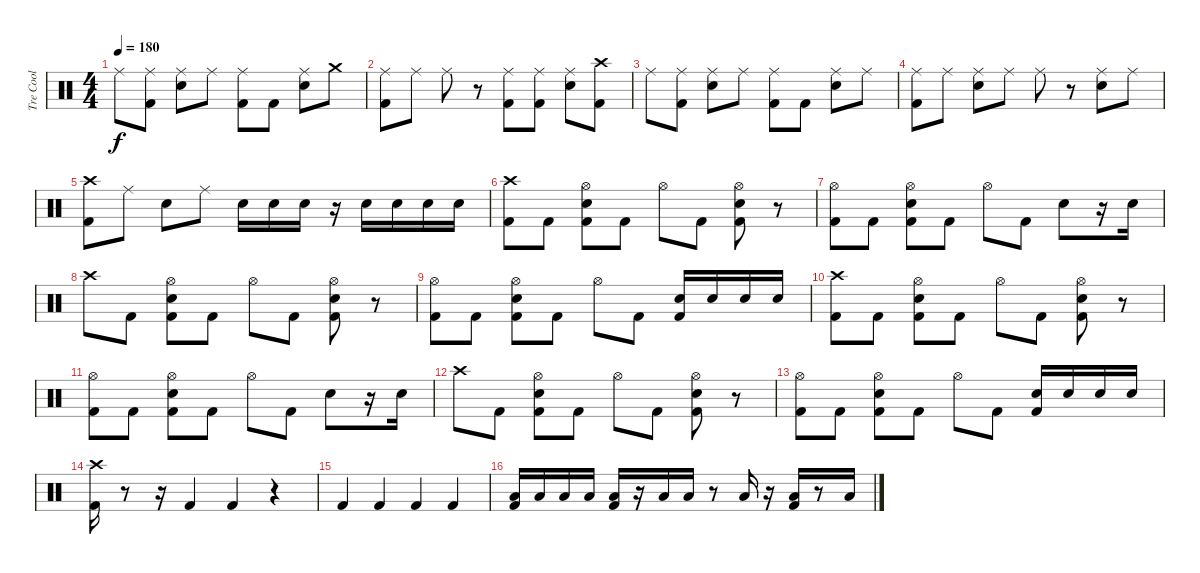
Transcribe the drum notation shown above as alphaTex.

\track ("Tre Cool" "Tre Cool") {instrument percussion}
\staff {score}
\articulation defaults
\ts (4 4)
\tempo 180
\clef neutral
\ks c "Ride (middle)".8{dy f}
("Kick (hit) 2" "Ride (middle)").8 ("Snare (hit) 2" "Ride (middle)").8 "Ride (middle)".8 ("Kick (hit) 2" "Ride (middle)").8 "Kick (hit) 2".8 ("Snare (hit) 2" "Ride (middle)").8 "Crash medium (hit)".8 |
("Kick (hit) 2" "Ride (middle)").8 "Ride (middle)".8 "Ride (middle)".8 r.8 ("Ride (middle)" "Kick (hit) 2").8 ("Ride (middle)" "Kick (hit) 2").8 ("Ride (middle)" "Snare (hit) 2").8 ("Crash high (hit)" "Kick (hit) 2").8 |
"Ride (middle)".8 ("Ride (middle)" "Kick (hit) 2").8 ("Ride (middle)" "Snare (hit) 2").8 "Ride (middle)".8 ("Ride (middle)" "Kick (hit) 2").8 "Kick (hit) 2".8 ("Ride (middle)" "Snare (hit) 2").8 "Ride (middle)".8 |
("Kick (hit) 2" "Ride (middle)").8 "Ride (middle)".8 ("Snare (hit) 2" "Ride (middle)").8 "Ride (middle)".8 "Ride (middle)".8 r.8 ("Snare (hit) 2" "Ride (middle)").8 "Ride (middle)".8 |
("Kick (hit) 2" "Crash high (hit)").8 "Ride (middle)".8 "Snare (hit) 2".8 "Ride (middle)".8 "Snare (hit) 2".16 "Snare (hit) 2".16 "Snare (hit) 2".16 r.16 "Snare (hit) 2".16 "Snare (hit) 2".16 "Snare (hit) 2".16 "Snare (hit) 2".16 |
("Crash high (hit)" "Kick (hit) 2").8 "Kick (hit) 2".8 ("Kick (hit) 2" "Hi-Hat (open)" "Snare (hit) 2").8 "Kick (hit) 2".8 "Hi-Hat (open)".8 "Kick (hit) 2".8 ("Kick (hit) 2" "Hi-Hat (open)" "Snare (hit) 2").8 r.8 |
("Hi-Hat (open)" "Kick (hit) 2").8 "Kick (hit) 2".8 ("Kick (hit) 2" "Hi-Hat (open)" "Snare (hit) 2").8 "Kick (hit) 2".8 "Hi-Hat (open)".8 "Kick (hit) 2".8 "Snare (hit) 2".8 r.16 "Snare (hit) 2".16 |
"Crash high (hit)".8 "Kick (hit) 2".8 ("Kick (hit) 2" "Hi-Hat (open)" "Snare (hit) 2").8 "Kick (hit) 2".8 "Hi-Hat (open)".8 "Kick (hit) 2".8 ("Kick (hit) 2" "Hi-Hat (open)" "Snare (hit) 2").8 r.8 |
("Hi-Hat (open)" "Kick (hit) 2").8 "Kick (hit) 2".8 ("Kick (hit) 2" "Hi-Hat (open)" "Snare (hit) 2").8 "Kick (hit) 2".8 "Hi-Hat (open)".8 "Kick (hit) 2".8 ("Kick (hit) 2" "Snare (hit) 2").16 "Snare (hit) 2".16 "Snare (hit) 2".16 "Snare (hit) 2".16 |
("Kick (hit) 2" "Crash high (hit)").8 "Kick (hit) 2".8 ("Snare (hit) 2" "Hi-Hat (open)" "Kick (hit) 2").8 "Kick (hit) 2".8 "Hi-Hat (open)".8 "Kick (hit) 2".8 ("Snare (hit) 2" "Hi-Hat (open)" "Kick (hit) 2").8 r.8 |
("Kick (hit) 2" "Hi-Hat (open)").8 "Kick (hit) 2".8 ("Snare (hit) 2" "Hi-Hat (open)" "Kick (hit) 2").8 "Kick (hit) 2".8 "Hi-Hat (open)".8 "Kick (hit) 2".8 "Snare (hit) 2".8 r.16 "Snare (hit) 2".16 |
"Crash high (hit)".8 "Kick (hit) 2".8 ("Snare (hit) 2" "Hi-Hat (open)" "Kick (hit) 2").8 "Kick (hit) 2".8 "Hi-Hat (open)".8 "Kick (hit) 2".8 ("Snare (hit) 2" "Hi-Hat (open)" "Kick (hit) 2").8 r.8 |
("Kick (hit) 2" "Hi-Hat (open)").8 "Kick (hit) 2".8 ("Snare (hit) 2" "Hi-Hat (open)" "Kick (hit) 2").8 "Kick (hit) 2".8 "Hi-Hat (open)".8 "Kick (hit) 2".8 ("Snare (hit) 2" "Kick (hit) 2").16 "Snare (hit) 2".16 "Snare (hit) 2".16 "Snare (hit) 2".16 |
("Crash high (hit)" "Kick (hit) 2").16 r.8 r.16 "Kick (hit) 2".4 "Kick (hit) 2".4 r.4 |
"Kick (hit) 2".4 "Kick (hit) 2".4 "Kick (hit) 2".4 "Kick (hit) 2".4 |
("Low Floor Tom (hit)" "Kick (hit) 2").16 "Low Floor Tom (hit)".16 "Low Floor Tom (hit)".16 "Low Floor Tom (hit)".16 ("Low Floor Tom (hit)" "Kick (hit) 2").16 r.16 "Low Floor Tom (hit)".16 "Low Floor Tom (hit)".16 r.8 "Low Floor Tom (hit)".16 r.16 ("Low Floor Tom (hit)" "Kick (hit) 2").16 r.8 "Low Floor Tom (hit)".16
